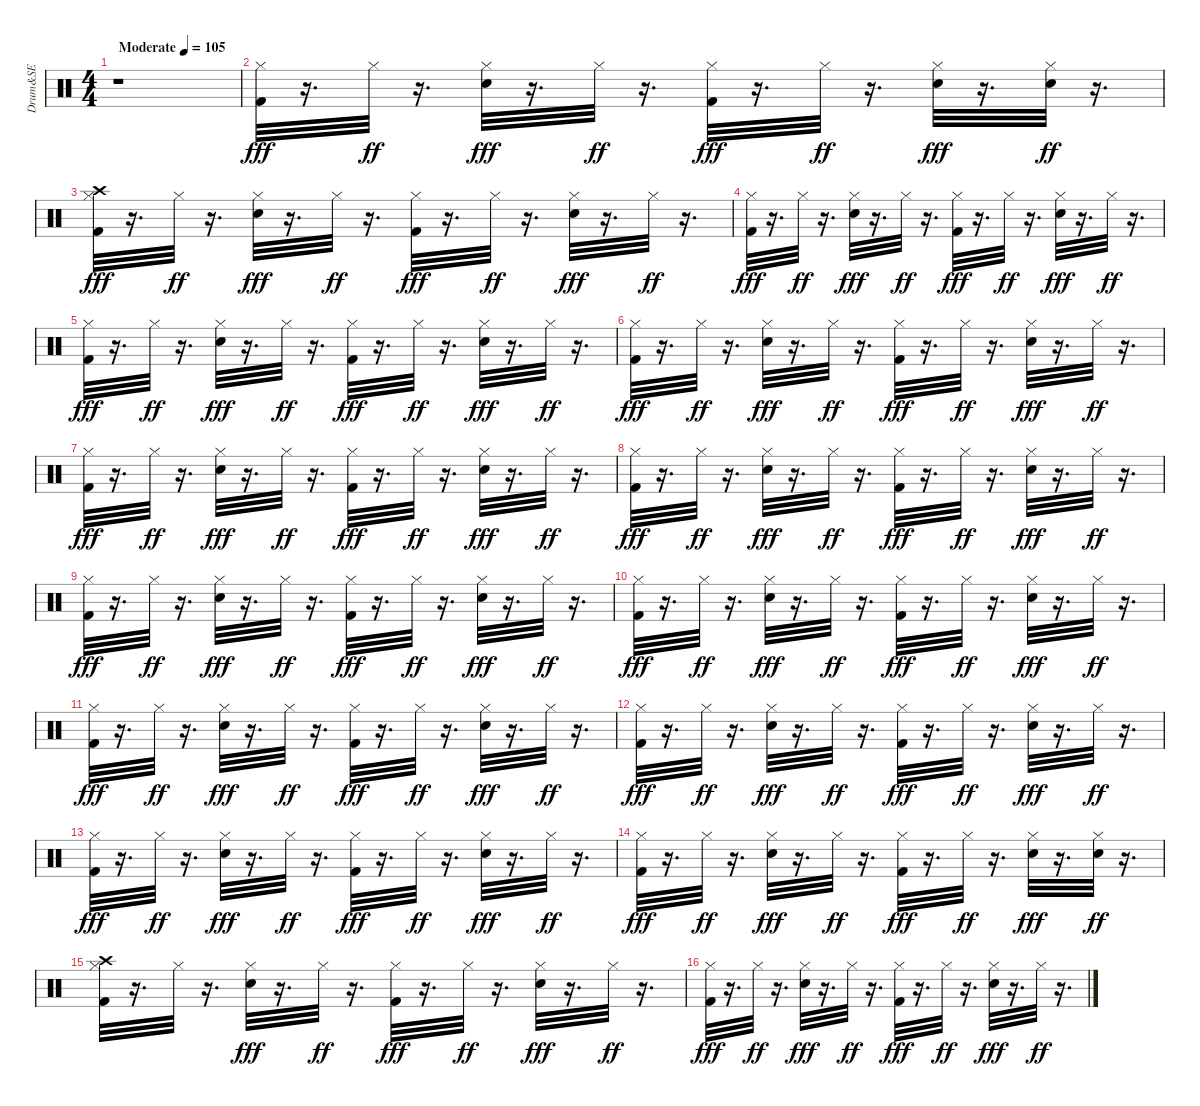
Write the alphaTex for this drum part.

\track ("Drum&SE" "Drum&SE") {instrument percussion}
\staff {score}
\articulation defaults
\ts (4 4)
\tempo (105 "Moderate")
\clef neutral
\ks c
r.1{dy fff} |
("Kick (hit) 2" "Hi-Hat (closed)").32 r.16{d} "Hi-Hat (closed)".32{dy ff volume 8} r.16{d} ("Snare (hit) 2" "Hi-Hat (closed)").32{dy fff} r.16{d} "Hi-Hat (closed)".32{dy ff} r.16{d} ("Kick (hit) 2" "Hi-Hat (closed)").32{dy fff} r.16{d} "Hi-Hat (closed)".32{dy ff} r.16{d} ("Snare (hit) 2" "Hi-Hat (closed)").32{dy fff} r.16{d} ("Snare (hit) 2" "Hi-Hat (closed)").32{dy ff} r.16{d} |
("Kick (hit) 2" "Hi-Hat (closed)" "Crash high (hit)").32{dy fff} r.16{d} "Hi-Hat (closed)".32{dy ff} r.16{d} ("Snare (hit) 2" "Hi-Hat (closed)").32{dy fff} r.16{d} "Hi-Hat (closed)".32{dy ff} r.16{d} ("Kick (hit) 2" "Hi-Hat (closed)").32{dy fff} r.16{d} "Hi-Hat (closed)".32{dy ff} r.16{d} ("Snare (hit) 2" "Hi-Hat (closed)").32{dy fff} r.16{d} "Hi-Hat (closed)".32{dy ff} r.16{d} |
("Kick (hit) 2" "Hi-Hat (closed)").32{dy fff} r.16{d} "Hi-Hat (closed)".32{dy ff} r.16{d} ("Snare (hit) 2" "Hi-Hat (closed)").32{dy fff} r.16{d} "Hi-Hat (closed)".32{dy ff} r.16{d} ("Kick (hit) 2" "Hi-Hat (closed)").32{dy fff} r.16{d} "Hi-Hat (closed)".32{dy ff} r.16{d} ("Snare (hit) 2" "Hi-Hat (closed)").32{dy fff} r.16{d} "Hi-Hat (closed)".32{dy ff} r.16{d} |
("Kick (hit) 2" "Hi-Hat (closed)").32{dy fff} r.16{d} "Hi-Hat (closed)".32{dy ff} r.16{d} ("Snare (hit) 2" "Hi-Hat (closed)").32{dy fff} r.16{d} "Hi-Hat (closed)".32{dy ff} r.16{d} ("Kick (hit) 2" "Hi-Hat (closed)").32{dy fff} r.16{d} "Hi-Hat (closed)".32{dy ff} r.16{d} ("Snare (hit) 2" "Hi-Hat (closed)").32{dy fff} r.16{d} "Hi-Hat (closed)".32{dy ff} r.16{d} |
("Kick (hit) 2" "Hi-Hat (closed)").32{dy fff} r.16{d} "Hi-Hat (closed)".32{dy ff} r.16{d} ("Snare (hit) 2" "Hi-Hat (closed)").32{dy fff} r.16{d} "Hi-Hat (closed)".32{dy ff} r.16{d} ("Kick (hit) 2" "Hi-Hat (closed)").32{dy fff} r.16{d} "Hi-Hat (closed)".32{dy ff} r.16{d} ("Snare (hit) 2" "Hi-Hat (closed)").32{dy fff} r.16{d} "Hi-Hat (closed)".32{dy ff} r.16{d} |
("Kick (hit) 2" "Hi-Hat (closed)").32{dy fff} r.16{d} "Hi-Hat (closed)".32{dy ff} r.16{d} ("Snare (hit) 2" "Hi-Hat (closed)").32{dy fff} r.16{d} "Hi-Hat (closed)".32{dy ff} r.16{d} ("Kick (hit) 2" "Hi-Hat (closed)").32{dy fff} r.16{d} "Hi-Hat (closed)".32{dy ff} r.16{d} ("Snare (hit) 2" "Hi-Hat (closed)").32{dy fff} r.16{d} "Hi-Hat (closed)".32{dy ff} r.16{d} |
("Kick (hit) 2" "Hi-Hat (closed)").32{dy fff} r.16{d} "Hi-Hat (closed)".32{dy ff} r.16{d} ("Snare (hit) 2" "Hi-Hat (closed)").32{dy fff} r.16{d} "Hi-Hat (closed)".32{dy ff} r.16{d} ("Kick (hit) 2" "Hi-Hat (closed)").32{dy fff} r.16{d} "Hi-Hat (closed)".32{dy ff} r.16{d} ("Snare (hit) 2" "Hi-Hat (closed)").32{dy fff} r.16{d} "Hi-Hat (closed)".32{dy ff} r.16{d} |
("Kick (hit) 2" "Hi-Hat (closed)").32{dy fff} r.16{d} "Hi-Hat (closed)".32{dy ff} r.16{d} ("Snare (hit) 2" "Hi-Hat (closed)").32{dy fff} r.16{d} "Hi-Hat (closed)".32{dy ff} r.16{d} ("Kick (hit) 2" "Hi-Hat (closed)").32{dy fff} r.16{d} "Hi-Hat (closed)".32{dy ff} r.16{d} ("Snare (hit) 2" "Hi-Hat (closed)").32{dy fff} r.16{d} "Hi-Hat (closed)".32{dy ff} r.16{d} |
("Kick (hit) 2" "Hi-Hat (closed)").32{dy fff} r.16{d} "Hi-Hat (closed)".32{dy ff} r.16{d} ("Snare (hit) 2" "Hi-Hat (closed)").32{dy fff} r.16{d} "Hi-Hat (closed)".32{dy ff} r.16{d} ("Kick (hit) 2" "Hi-Hat (closed)").32{dy fff} r.16{d} "Hi-Hat (closed)".32{dy ff} r.16{d} ("Snare (hit) 2" "Hi-Hat (closed)").32{dy fff} r.16{d} "Hi-Hat (closed)".32{dy ff} r.16{d} |
("Kick (hit) 2" "Hi-Hat (closed)").32{dy fff} r.16{d} "Hi-Hat (closed)".32{dy ff} r.16{d} ("Snare (hit) 2" "Hi-Hat (closed)").32{dy fff} r.16{d} "Hi-Hat (closed)".32{dy ff} r.16{d} ("Kick (hit) 2" "Hi-Hat (closed)").32{dy fff} r.16{d} "Hi-Hat (closed)".32{dy ff} r.16{d} ("Snare (hit) 2" "Hi-Hat (closed)").32{dy fff} r.16{d} "Hi-Hat (closed)".32{dy ff} r.16{d} |
("Kick (hit) 2" "Hi-Hat (closed)").32{dy fff} r.16{d} "Hi-Hat (closed)".32{dy ff} r.16{d} ("Snare (hit) 2" "Hi-Hat (closed)").32{dy fff} r.16{d} "Hi-Hat (closed)".32{dy ff} r.16{d} ("Kick (hit) 2" "Hi-Hat (closed)").32{dy fff} r.16{d} "Hi-Hat (closed)".32{dy ff} r.16{d} ("Snare (hit) 2" "Hi-Hat (closed)").32{dy fff} r.16{d} "Hi-Hat (closed)".32{dy ff} r.16{d} |
("Kick (hit) 2" "Hi-Hat (closed)").32{dy fff} r.16{d} "Hi-Hat (closed)".32{dy ff} r.16{d} ("Snare (hit) 2" "Hi-Hat (closed)").32{dy fff} r.16{d} "Hi-Hat (closed)".32{dy ff} r.16{d} ("Kick (hit) 2" "Hi-Hat (closed)").32{dy fff} r.16{d} "Hi-Hat (closed)".32{dy ff} r.16{d} ("Snare (hit) 2" "Hi-Hat (closed)").32{dy fff} r.16{d} "Hi-Hat (closed)".32{dy ff} r.16{d} |
("Kick (hit) 2" "Hi-Hat (closed)").32{dy fff} r.16{d} "Hi-Hat (closed)".32{dy ff} r.16{d} ("Snare (hit) 2" "Hi-Hat (closed)").32{dy fff} r.16{d} "Hi-Hat (closed)".32{dy ff} r.16{d} ("Kick (hit) 2" "Hi-Hat (closed)").32{dy fff} r.16{d} "Hi-Hat (closed)".32{dy ff} r.16{d} ("Snare (hit) 2" "Hi-Hat (closed)").32{dy fff} r.16{d} ("Snare (hit) 2" "Hi-Hat (closed)").32{dy ff} r.16{d} |
("Kick (hit) 2" "Hi-Hat (closed)" "Crash high (hit)").32 r.16{d} "Hi-Hat (closed)".32 r.16{d} ("Snare (hit) 2" "Hi-Hat (closed)").32{dy fff} r.16{d} "Hi-Hat (closed)".32{dy ff} r.16{d} ("Kick (hit) 2" "Hi-Hat (closed)").32{dy fff} r.16{d} "Hi-Hat (closed)".32{dy ff} r.16{d} ("Snare (hit) 2" "Hi-Hat (closed)").32{dy fff} r.16{d} "Hi-Hat (closed)".32{dy ff} r.16{d} |
("Kick (hit) 2" "Hi-Hat (closed)").32{dy fff} r.16{d} "Hi-Hat (closed)".32{dy ff} r.16{d} ("Snare (hit) 2" "Hi-Hat (closed)").32{dy fff} r.16{d} "Hi-Hat (closed)".32{dy ff} r.16{d} ("Kick (hit) 2" "Hi-Hat (closed)").32{dy fff} r.16{d} "Hi-Hat (closed)".32{dy ff} r.16{d} ("Snare (hit) 2" "Hi-Hat (closed)").32{dy fff} r.16{d} "Hi-Hat (closed)".32{dy ff} r.16{d}
